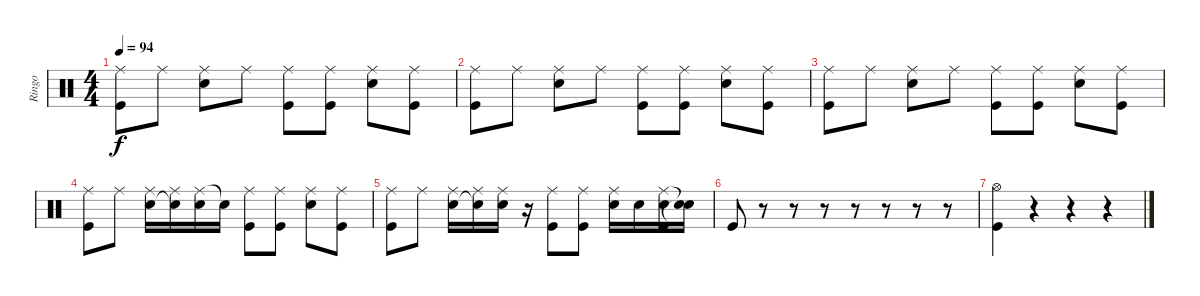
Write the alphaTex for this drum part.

\track ("Ringo" "Ringo") {instrument percussion}
\staff {score}
\articulation defaults
\ts (4 4)
\tempo 94
\clef neutral
\ks c
("Ride (middle)" "Kick (hit)").8{dy f} "Ride (middle)".8 ("Ride (middle)" "Snare (hit) 2").8 "Ride (middle)".8 ("Ride (middle)" "Kick (hit)").8 ("Ride (middle)" "Kick (hit)").8 ("Ride (middle)" "Snare (hit) 2").8 ("Ride (middle)" "Kick (hit)").8 |
("Ride (middle)" "Kick (hit)").8 "Ride (middle)".8 ("Ride (middle)" "Snare (hit) 2").8 "Ride (middle)".8 ("Ride (middle)" "Kick (hit)").8 ("Ride (middle)" "Kick (hit)").8 ("Ride (middle)" "Snare (hit) 2").8 ("Ride (middle)" "Kick (hit)").8 |
("Ride (middle)" "Kick (hit)").8 "Ride (middle)".8 ("Ride (middle)" "Snare (hit) 2").8 "Ride (middle)".8 ("Ride (middle)" "Kick (hit)").8 ("Ride (middle)" "Kick (hit)").8 ("Ride (middle)" "Snare (hit) 2").8 ("Ride (middle)" "Kick (hit)").8 |
("Ride (middle)" "Kick (hit)").8 "Ride (middle)".8 ("Ride (middle)" "Snare (hit) 2").16 ("Ride (middle)" "Snare (hit)"{t}).16 ("Ride (middle)" "Snare (hit) 2").16 "Snare (hit)"{t}.16 ("Ride (middle)" "Kick (hit)").8 ("Ride (middle)" "Kick (hit)").8 ("Ride (middle)" "Snare (hit) 2").8 ("Ride (middle)" "Kick (hit)").8 |
("Ride (middle)" "Kick (hit)").8 "Ride (middle)".8 ("Ride (middle)" "Snare (hit) 2").16 ("Ride (middle)" "Snare (hit)"{t}).16 ("Ride (middle)" "Snare (hit) 2").16 r.16 ("Ride (middle)" "Kick (hit)").8 ("Ride (middle)" "Kick (hit)").8 ("Ride (middle)" "Snare (hit) 2").16 "Snare (hit) 2".16 ("Ride (middle)" "Kick (hit)" "Snare (hit) 2").16 ("Snare (hit)"{t} "Snare (hit)"{t}).16 |
"Kick (hit)".8 r.8 r.8 r.8 r.8 r.8 r.8 r.8 |
("Kick (hit)" "Hi-Hat (open)").4 r.4 r.4 r.4
